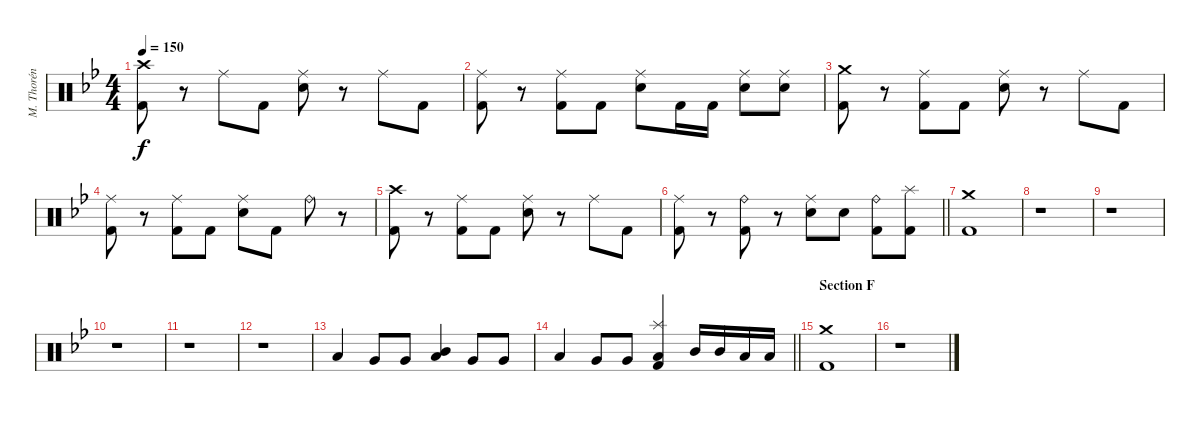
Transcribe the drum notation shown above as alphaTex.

\track ("M. Thorén (Drums)" "M. Thorén ") {instrument percussion}
\staff {score}
\articulation defaults
\ts (4 4)
\tempo 150
\clef neutral
\ks gminor
("Crash high (hit)" "Kick (hit) 2").8{dy f} r.8 "Ride (middle)".8 "Kick (hit) 2".8 ("Ride (middle)" "Electric Snare (hit)").8 r.8 "Ride (middle)".8 "Kick (hit) 2".8 |
("Ride (middle)" "Kick (hit) 2").8 r.8 ("Ride (middle)" "Kick (hit) 2").8 "Kick (hit) 2".8 ("Ride (middle)" "Electric Snare (hit)").8 "Kick (hit) 2".16 "Kick (hit) 2".16 ("Ride (middle)" "Electric Snare (hit)").8 ("Ride (middle)" "Electric Snare (hit)").8 |
("Crash medium (hit)" "Kick (hit) 2").8 r.8 ("Ride (middle)" "Kick (hit) 2").8 "Kick (hit) 2".8 ("Ride (middle)" "Electric Snare (hit)").8 r.8 "Ride (middle)".8 "Kick (hit) 2".8 |
("Ride (middle)" "Kick (hit) 2").8 r.8 ("Ride (middle)" "Kick (hit) 2").8 "Kick (hit) 2".8 ("Ride (middle)" "Electric Snare (hit)").8 "Kick (hit) 2".8 "Ride (bell)".8 r.8 |
("Crash high (hit)" "Kick (hit) 2").8 r.8 ("Ride (middle)" "Kick (hit) 2").8 "Kick (hit) 2".8 ("Ride (middle)" "Electric Snare (hit)").8 r.8 "Ride (middle)".8 "Kick (hit) 2".8 |
\barLineRight lightlight
("Ride (middle)" "Kick (hit) 2").8 r.8 ("Ride (bell)" "Kick (hit) 2").8 r.8 ("Ride (middle)" "Electric Snare (hit)").8 "Electric Snare (hit)".8 ("Ride (bell)" "Kick (hit) 2").8 ("Splash (hit)" "Kick (hit) 2").8 |
("Crash medium (hit)" "Kick (hit) 2").1 |
r.1 |
r.1 |
r.1 |
r.1 |
r.1 |
"Low Tom (hit)".4 "Very Low Tom (hit)".8 "Very Low Tom (hit)".8 ("Mid Tom (hit)" "Low Tom (hit)").4 "Very Low Tom (hit)".8 "Very Low Tom (hit)".8 |
\barLineRight lightlight "Low Tom (hit)".4 "Very Low Tom (hit)".8 "Very Low Tom (hit)".8
("Splash (hit)" "Low Tom (hit)" "Kick (hit) 2").4 "Mid Tom (hit)".16 "Mid Tom (hit)".16 "Low Tom (hit)".16 "Low Tom (hit)".16 |
\section ("" "Section F")
("Crash medium (hit)" "Kick (hit) 2").1 |
r.1
